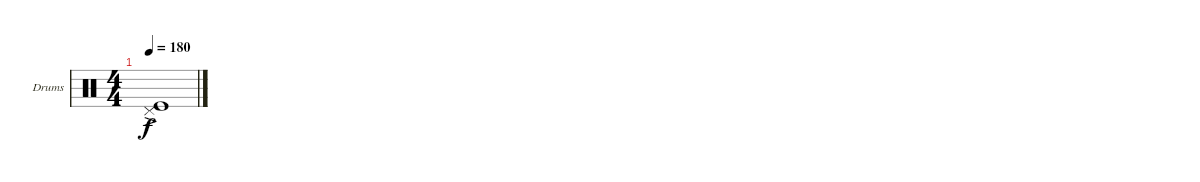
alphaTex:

\defaultSystemsLayout 4
\bracketExtendMode groupsimilarinstruments
\firstSystemTrackNameOrientation horizontal
\otherSystemsTrackNameOrientation horizontal
\track ("Георгий Гурьянов" "Drums") {instrument percussion}
\staff {score}
\articulation defaults
\ts (4 4)
\tempo 180
\clef neutral
\ks c
("Pedal Hi-Hat (hit)"{ac} "Kick (hit)").1{dy f}
